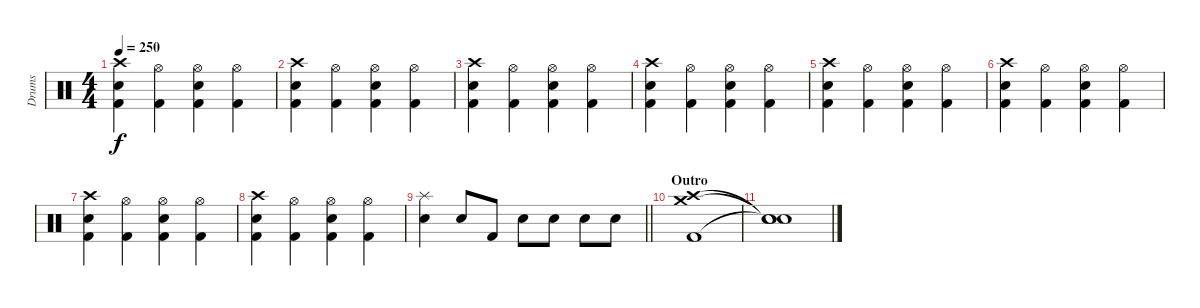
\track ("Drums" "Drums") {instrument percussion}
\staff {score}
\articulation defaults
\ts (4 4)
\tempo 250
\clef neutral
\ks c
("Crash high (hit)" "Electric Snare (hit)" "Kick (hit) 2").4{dy f} ("Hi-Hat (open)" "Kick (hit) 2").4 ("Hi-Hat (open)" "Electric Snare (hit)" "Kick (hit) 2").4 ("Hi-Hat (open)" "Kick (hit) 2").4 |
("Crash high (hit)" "Electric Snare (hit)" "Kick (hit) 2").4 ("Hi-Hat (open)" "Kick (hit) 2").4 ("Hi-Hat (open)" "Electric Snare (hit)" "Kick (hit) 2").4 ("Hi-Hat (open)" "Kick (hit) 2").4 |
("Crash high (hit)" "Electric Snare (hit)" "Kick (hit) 2").4 ("Hi-Hat (open)" "Kick (hit) 2").4 ("Hi-Hat (open)" "Electric Snare (hit)" "Kick (hit) 2").4 ("Hi-Hat (open)" "Kick (hit) 2").4 |
("Crash high (hit)" "Electric Snare (hit)" "Kick (hit) 2").4 ("Hi-Hat (open)" "Kick (hit) 2").4 ("Hi-Hat (open)" "Electric Snare (hit)" "Kick (hit) 2").4 ("Hi-Hat (open)" "Kick (hit) 2").4 |
("Crash high (hit)" "Electric Snare (hit)" "Kick (hit) 2").4 ("Hi-Hat (open)" "Kick (hit) 2").4 ("Hi-Hat (open)" "Electric Snare (hit)" "Kick (hit) 2").4 ("Hi-Hat (open)" "Kick (hit) 2").4 |
("Crash high (hit)" "Electric Snare (hit)" "Kick (hit) 2").4 ("Hi-Hat (open)" "Kick (hit) 2").4 ("Hi-Hat (open)" "Electric Snare (hit)" "Kick (hit) 2").4 ("Hi-Hat (open)" "Kick (hit) 2").4 |
("Crash high (hit)" "Electric Snare (hit)" "Kick (hit) 2").4 ("Hi-Hat (open)" "Kick (hit) 2").4 ("Hi-Hat (open)" "Electric Snare (hit)" "Kick (hit) 2").4 ("Hi-Hat (open)" "Kick (hit) 2").4 |
("Crash high (hit)" "Electric Snare (hit)" "Kick (hit) 2").4 ("Hi-Hat (open)" "Kick (hit) 2").4 ("Hi-Hat (open)" "Electric Snare (hit)" "Kick (hit) 2").4 ("Hi-Hat (open)" "Kick (hit) 2").4 |
\barLineRight lightlight
("Splash (hit)" "Electric Snare (hit)").4 "Electric Snare (hit)".8 "Kick (hit) 2".8 "Electric Snare (hit)".8 "Electric Snare (hit)".8 "Electric Snare (hit)".8 "Electric Snare (hit)".8 |
\section ("" "Outro")
("Crash high (hit)" "Crash medium (hit)" "Kick (hit) 2").1{volume 0} |
("Snare (hit)"{t} "Snare (hit)"{t} "Snare (hit)"{t}).1
